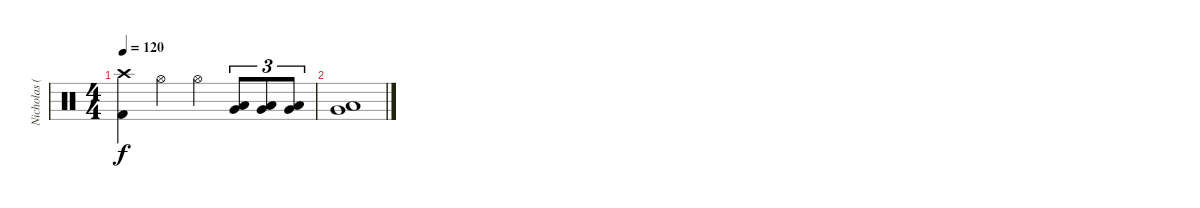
\track ("Nicholas (Drums)" "Nicholas (") {instrument percussion}
\staff {score}
\articulation defaults
\ts (4 4)
\tempo 120
\clef neutral
\ks c
("Crash high (hit)" "Kick (hit) 2").4{dy f} "Hi-Hat (open)".4 "Hi-Hat (open)".4 ("Very Low Tom (hit)" "Low Floor Tom (hit)").8{tu (3 2)} ("Very Low Tom (hit)" "Low Floor Tom (hit)").8{tu (3 2)} ("Very Low Tom (hit)" "Low Floor Tom (hit)").8{tu (3 2)} |
("Very Low Tom (hit)" "Low Floor Tom (hit)").1
